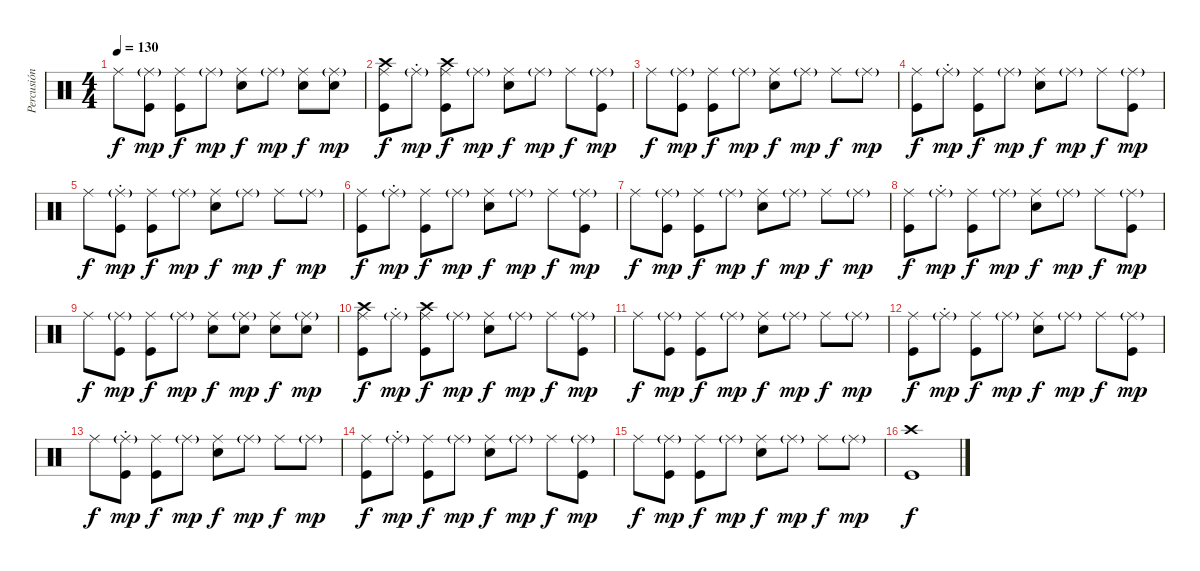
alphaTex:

\track ("Percusión" "Percusión") {instrument percussion}
\staff {score}
\articulation defaults
\ts (4 4)
\tempo 130
\clef neutral
\ks c "Ride (middle)".8{dy f}
("Ride (middle)"{g} "Kick (hit)").8{dy mp} ("Ride (middle)" "Kick (hit)").8{dy f} "Ride (middle)"{g}.8{dy mp} ("Ride (middle)" "Electric Snare (hit)").8{dy f} "Ride (middle)"{g}.8{dy mp} ("Ride (middle)" "Electric Snare (hit)").8{dy f} ("Ride (middle)"{g} "Electric Snare (hit)").8{dy mp} |
("Crash high (hit)" "Ride (middle)" "Kick (hit)").8{dy f} "Ride (middle)"{g st}.8{dy mp} ("Crash high (hit)" "Ride (middle)" "Kick (hit)").8{dy f} "Ride (middle)"{g}.8{dy mp} ("Ride (middle)" "Electric Snare (hit)").8{dy f} "Ride (middle)"{g}.8{dy mp} "Ride (middle)".8{dy f} ("Ride (middle)"{g} "Kick (hit)").8{dy mp} |
"Ride (middle)".8{dy f} ("Ride (middle)"{g} "Kick (hit)").8{dy mp} ("Ride (middle)" "Kick (hit)").8{dy f} "Ride (middle)"{g}.8{dy mp} ("Ride (middle)" "Electric Snare (hit)").8{dy f} "Ride (middle)"{g}.8{dy mp} "Ride (middle)".8{dy f} "Ride (middle)"{g}.8{dy mp} |
("Ride (middle)" "Kick (hit)").8{dy f} "Ride (middle)"{g st}.8{dy mp} ("Ride (middle)" "Kick (hit)").8{dy f} "Ride (middle)"{g}.8{dy mp} ("Ride (middle)" "Electric Snare (hit)").8{dy f} "Ride (middle)"{g}.8{dy mp} "Ride (middle)".8{dy f} ("Ride (middle)"{g} "Kick (hit)").8{dy mp} |
"Ride (middle)".8{dy f} ("Ride (middle)"{g st} "Kick (hit)").8{dy mp} ("Ride (middle)" "Kick (hit)").8{dy f} "Ride (middle)"{g}.8{dy mp} ("Ride (middle)" "Electric Snare (hit)").8{dy f} "Ride (middle)"{g}.8{dy mp} "Ride (middle)".8{dy f} "Ride (middle)"{g}.8{dy mp} |
("Ride (middle)" "Kick (hit)").8{dy f} "Ride (middle)"{g st}.8{dy mp} ("Ride (middle)" "Kick (hit)").8{dy f} "Ride (middle)"{g}.8{dy mp} ("Ride (middle)" "Electric Snare (hit)").8{dy f} "Ride (middle)"{g}.8{dy mp} "Ride (middle)".8{dy f} ("Ride (middle)"{g} "Kick (hit)").8{dy mp} |
"Ride (middle)".8{dy f} ("Ride (middle)"{g} "Kick (hit)").8{dy mp} ("Ride (middle)" "Kick (hit)").8{dy f} "Ride (middle)"{g}.8{dy mp} ("Ride (middle)" "Electric Snare (hit)").8{dy f} "Ride (middle)"{g}.8{dy mp} "Ride (middle)".8{dy f} "Ride (middle)"{g}.8{dy mp} |
("Ride (middle)" "Kick (hit)").8{dy f} "Ride (middle)"{g st}.8{dy mp} ("Ride (middle)" "Kick (hit)").8{dy f} "Ride (middle)"{g}.8{dy mp} ("Ride (middle)" "Electric Snare (hit)").8{dy f} "Ride (middle)"{g}.8{dy mp} "Ride (middle)".8{dy f} ("Ride (middle)"{g} "Kick (hit)").8{dy mp} |
"Ride (middle)".8{dy f} ("Ride (middle)"{g} "Kick (hit)").8{dy mp} ("Ride (middle)" "Kick (hit)").8{dy f} "Ride (middle)"{g}.8{dy mp} ("Ride (middle)" "Electric Snare (hit)").8{dy f} ("Ride (middle)"{g} "Electric Snare (hit)").8{dy mp} ("Ride (middle)" "Electric Snare (hit)").8{dy f} ("Ride (middle)"{g} "Electric Snare (hit)").8{dy mp} |
("Crash high (hit)" "Ride (middle)" "Kick (hit)").8{dy f} "Ride (middle)"{g st}.8{dy mp} ("Crash high (hit)" "Ride (middle)" "Kick (hit)").8{dy f} "Ride (middle)"{g}.8{dy mp} ("Ride (middle)" "Electric Snare (hit)").8{dy f} "Ride (middle)"{g}.8{dy mp} "Ride (middle)".8{dy f} ("Ride (middle)"{g} "Kick (hit)").8{dy mp} |
"Ride (middle)".8{dy f} ("Ride (middle)"{g} "Kick (hit)").8{dy mp} ("Ride (middle)" "Kick (hit)").8{dy f} "Ride (middle)"{g}.8{dy mp} ("Ride (middle)" "Electric Snare (hit)").8{dy f} "Ride (middle)"{g}.8{dy mp} "Ride (middle)".8{dy f} "Ride (middle)"{g}.8{dy mp} |
("Ride (middle)" "Kick (hit)").8{dy f} "Ride (middle)"{g st}.8{dy mp} ("Ride (middle)" "Kick (hit)").8{dy f} "Ride (middle)"{g}.8{dy mp} ("Ride (middle)" "Electric Snare (hit)").8{dy f} "Ride (middle)"{g}.8{dy mp} "Ride (middle)".8{dy f} ("Ride (middle)"{g} "Kick (hit)").8{dy mp} |
"Ride (middle)".8{dy f} ("Ride (middle)"{g st} "Kick (hit)").8{dy mp} ("Ride (middle)" "Kick (hit)").8{dy f} "Ride (middle)"{g}.8{dy mp} ("Ride (middle)" "Electric Snare (hit)").8{dy f} "Ride (middle)"{g}.8{dy mp} "Ride (middle)".8{dy f} "Ride (middle)"{g}.8{dy mp} |
("Ride (middle)" "Kick (hit)").8{dy f} "Ride (middle)"{g st}.8{dy mp} ("Ride (middle)" "Kick (hit)").8{dy f} "Ride (middle)"{g}.8{dy mp} ("Ride (middle)" "Electric Snare (hit)").8{dy f} "Ride (middle)"{g}.8{dy mp} "Ride (middle)".8{dy f} ("Ride (middle)"{g} "Kick (hit)").8{dy mp} |
"Ride (middle)".8{dy f} ("Ride (middle)"{g} "Kick (hit)").8{dy mp} ("Ride (middle)" "Kick (hit)").8{dy f} "Ride (middle)"{g}.8{dy mp} ("Ride (middle)" "Electric Snare (hit)").8{dy f} "Ride (middle)"{g}.8{dy mp} "Ride (middle)".8{dy f} "Ride (middle)"{g}.8{dy mp} |
("Crash high (hit)" "Kick (hit)").1{dy f}
